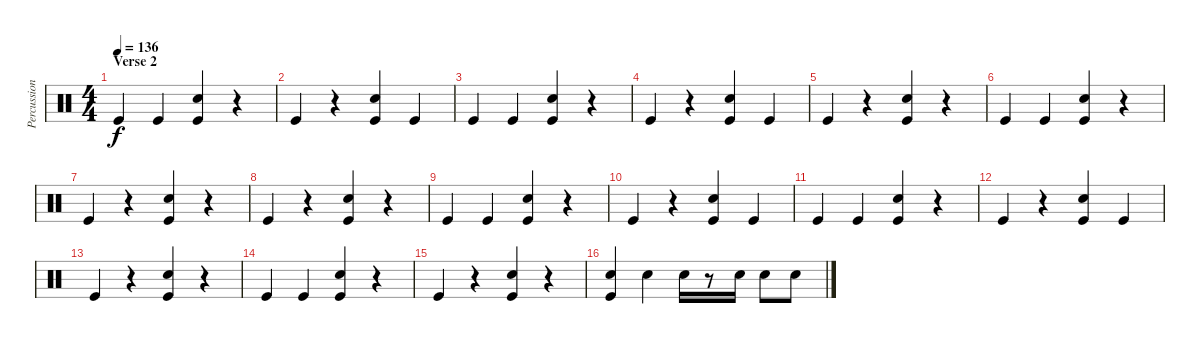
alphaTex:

\track ("Percussion" "Percussion") {instrument percussion}
\staff {score}
\articulation defaults
\ts (4 4)
\section ("" "Verse 2")
\tempo 136
\clef neutral
\ks c "Kick (hit)".4{dy f} "Kick (hit)".4
("Kick (hit)" "Electric Snare (hit)").4 r.4 |
"Kick (hit)".4 r.4 ("Kick (hit)" "Electric Snare (hit)").4 "Kick (hit)".4 |
"Kick (hit)".4 "Kick (hit)".4 ("Kick (hit)" "Electric Snare (hit)").4 r.4 |
"Kick (hit)".4 r.4 ("Kick (hit)" "Electric Snare (hit)").4 "Kick (hit)".4 |
"Kick (hit)".4 r.4 ("Kick (hit)" "Electric Snare (hit)").4 r.4 |
"Kick (hit)".4 "Kick (hit)".4 ("Kick (hit)" "Electric Snare (hit)").4 r.4 |
"Kick (hit)".4 r.4 ("Kick (hit)" "Electric Snare (hit)").4 r.4 |
"Kick (hit)".4 r.4 ("Kick (hit)" "Electric Snare (hit)").4 r.4 |
"Kick (hit)".4 "Kick (hit)".4 ("Kick (hit)" "Electric Snare (hit)").4 r.4 |
"Kick (hit)".4 r.4 ("Kick (hit)" "Electric Snare (hit)").4 "Kick (hit)".4 |
"Kick (hit)".4 "Kick (hit)".4 ("Kick (hit)" "Electric Snare (hit)").4 r.4 |
"Kick (hit)".4 r.4 ("Kick (hit)" "Electric Snare (hit)").4 "Kick (hit)".4 |
"Kick (hit)".4 r.4 ("Kick (hit)" "Electric Snare (hit)").4 r.4 |
"Kick (hit)".4 "Kick (hit)".4 ("Kick (hit)" "Electric Snare (hit)").4 r.4 |
"Kick (hit)".4 r.4 ("Kick (hit)" "Electric Snare (hit)").4 r.4 |
("Electric Snare (hit)" "Kick (hit)").4 "Electric Snare (hit)".4 "Electric Snare (hit)".16 r.8 "Electric Snare (hit)".16 "Electric Snare (hit)".8 "Electric Snare (hit)".8
